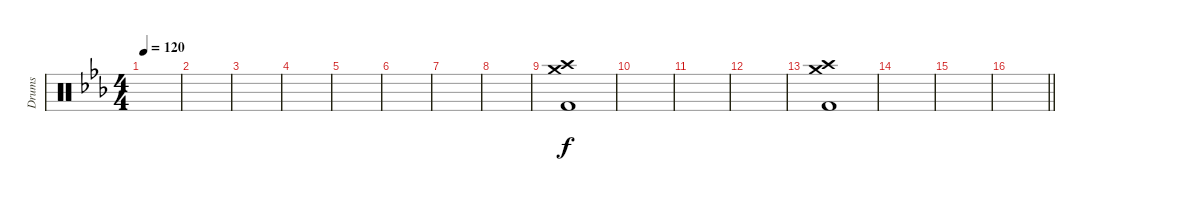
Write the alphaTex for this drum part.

\track ("Drums" "Drums") {instrument percussion}
\staff {score}
\articulation defaults
\ts (4 4)
\tempo 120
\clef neutral
\ks cminor
|
|
|
|
|
|
|
|
("Crash high (hit)" "Crash medium (hit)" "Kick (hit) 2").1 |
|
|
|
("Crash high (hit)" "Crash medium (hit)" "Kick (hit) 2").1 |
|
|
\barLineRight lightlight
